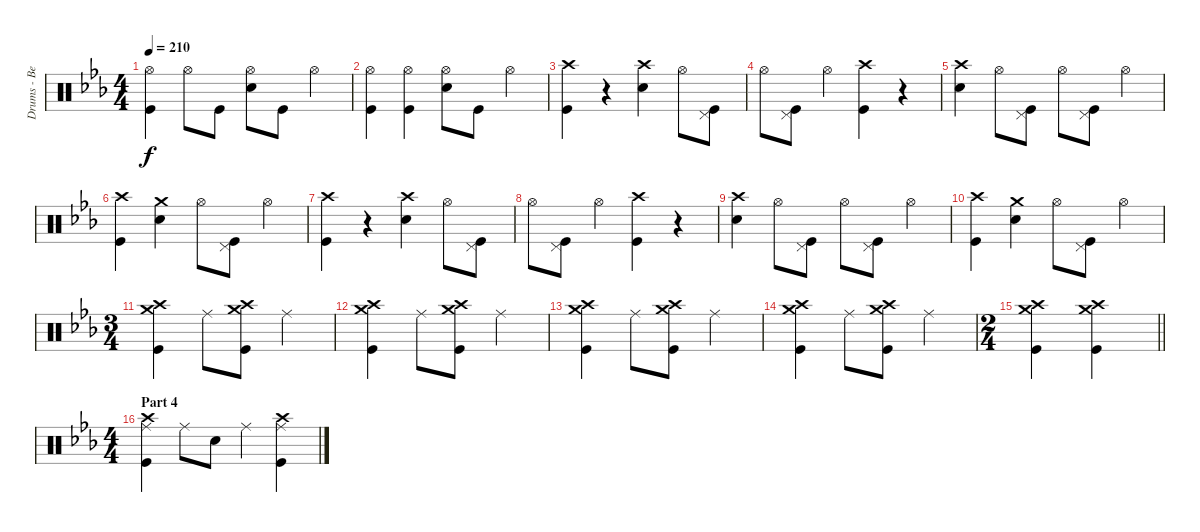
\track ("Drums - Ben Johnston" "Drums - Be") {instrument percussion}
\staff {score}
\articulation defaults
\ts (4 4)
\tempo 210
\clef neutral
\ks cminor
("Hi-Hat (open)" "Kick (hit)").4{dy f} "Hi-Hat (open)".8 "Kick (hit)".8 ("Hi-Hat (open)" "Snare (hit) 2").8 "Kick (hit)".8 "Hi-Hat (open)".4 |
("Hi-Hat (open)" "Kick (hit)").4 ("Hi-Hat (open)" "Kick (hit)").4 ("Hi-Hat (open)" "Snare (hit) 2").8 "Kick (hit)".8 "Hi-Hat (open)".4 |
("Crash high (hit)" "Kick (hit)").4 r.4 ("Crash high (hit)" "Snare (hit) 2").4 "Hi-Hat (open)".8 ("Pedal Hi-Hat (hit)" "Kick (hit)").8 |
"Hi-Hat (open)".8 ("Pedal Hi-Hat (hit)" "Kick (hit)").8 "Hi-Hat (open)".4 ("Crash high (hit)" "Kick (hit)").4 r.4 |
("Crash high (hit)" "Snare (hit) 2").4 "Hi-Hat (open)".8 ("Pedal Hi-Hat (hit)" "Kick (hit)").8 "Hi-Hat (open)".8 ("Pedal Hi-Hat (hit)" "Kick (hit)").8 "Hi-Hat (open)".4 |
("Crash high (hit)" "Kick (hit)").4 ("Crash medium (hit)" "Snare (hit) 2").4 "Hi-Hat (open)".8 ("Pedal Hi-Hat (hit)" "Kick (hit)").8 "Hi-Hat (open)".4 |
("Crash high (hit)" "Kick (hit)").4 r.4 ("Crash high (hit)" "Snare (hit) 2").4 "Hi-Hat (open)".8 ("Pedal Hi-Hat (hit)" "Kick (hit)").8 |
"Hi-Hat (open)".8 ("Pedal Hi-Hat (hit)" "Kick (hit)").8 "Hi-Hat (open)".4 ("Crash high (hit)" "Kick (hit)").4 r.4 |
("Crash high (hit)" "Snare (hit) 2").4 "Hi-Hat (open)".8 ("Pedal Hi-Hat (hit)" "Kick (hit)").8 "Hi-Hat (open)".8 ("Pedal Hi-Hat (hit)" "Kick (hit)").8 "Hi-Hat (open)".4 |
("Crash high (hit)" "Kick (hit)").4 ("Crash medium (hit)" "Snare (hit) 2").4 "Hi-Hat (open)".8 ("Pedal Hi-Hat (hit)" "Kick (hit)").8 "Hi-Hat (open)".4 |
\ts (3 4)
("Crash high (hit)" "Crash medium (hit)" "Kick (hit)").4 "Ride (middle)".8 ("Crash high (hit)" "Crash medium (hit)" "Kick (hit)").8 "Ride (middle)".4 |
("Crash high (hit)" "Crash medium (hit)" "Kick (hit)").4 "Ride (middle)".8 ("Crash high (hit)" "Crash medium (hit)" "Kick (hit)").8 "Ride (middle)".4 |
("Crash high (hit)" "Crash medium (hit)" "Kick (hit)").4 "Ride (middle)".8 ("Crash high (hit)" "Crash medium (hit)" "Kick (hit)").8 "Ride (middle)".4 |
("Crash high (hit)" "Crash medium (hit)" "Kick (hit)").4 "Ride (middle)".8 ("Crash high (hit)" "Crash medium (hit)" "Kick (hit)").8 "Ride (middle)".4 |
\ts (2 4)
\barLineRight lightlight
("Crash high (hit)" "Crash medium (hit)" "Kick (hit)").4 ("Crash high (hit)" "Crash medium (hit)" "Kick (hit)").4 |
\ts (4 4)
\section ("" "Part 4")
("Crash high (hit)" "Ride (middle)" "Kick (hit)").4 "Ride (middle)".8 "Snare (hit) 2".8 "Ride (middle)".4 ("Crash high (hit)" "Ride (middle)" "Kick (hit)").4
